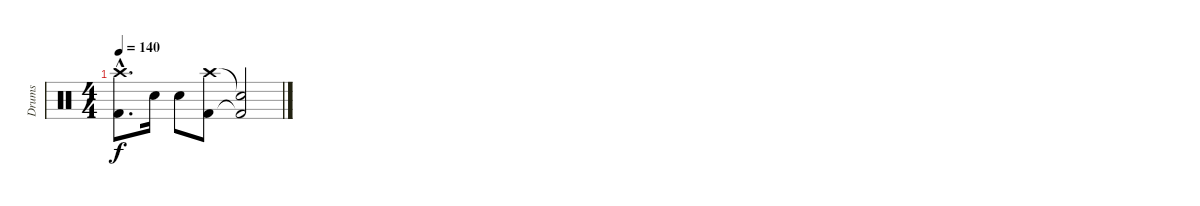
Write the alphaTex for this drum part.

\track ("Drums" "Drums") {instrument percussion}
\staff {score}
\articulation defaults
\ts (4 4)
\tempo 140
\clef neutral
\ks c
("Crash high (hit)"{hac} "Kick (hit) 2"{hac}).8{d dy f} "Electric Snare (hit)".16 "Electric Snare (hit)".8 ("Crash high (hit)" "Kick (hit) 2").8 ("Snare (hit)"{t} "Kick (hit) 2"{t}).2
